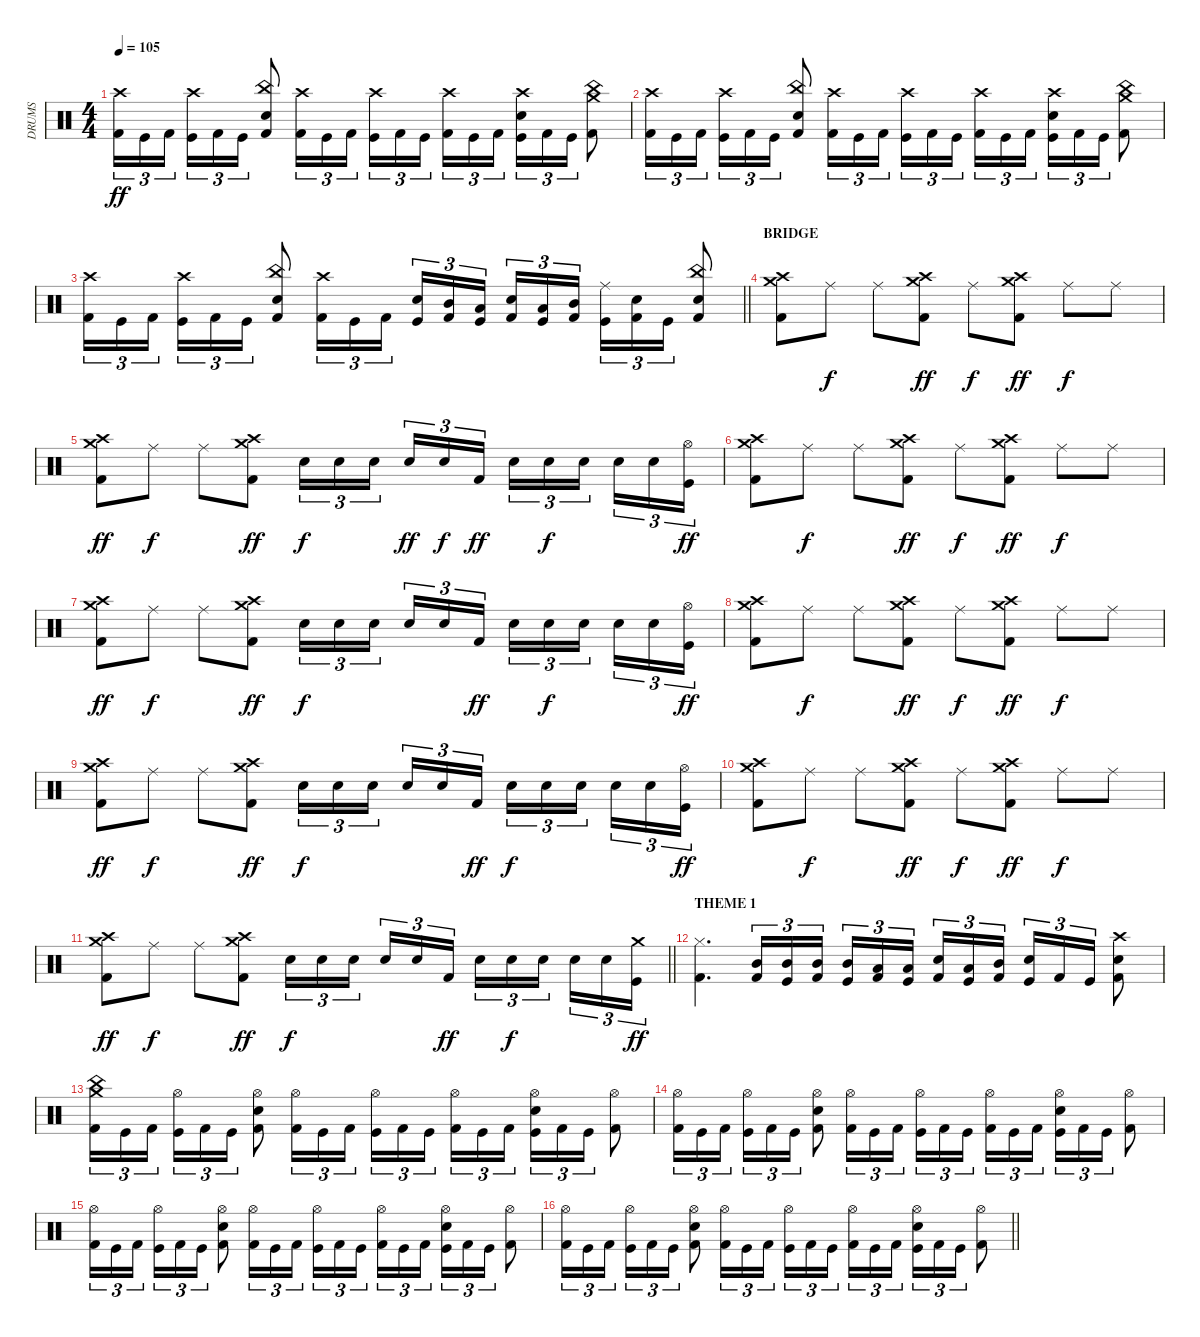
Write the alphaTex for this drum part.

\track ("DRUMS" "DRUMS") {instrument percussion}
\staff {score}
\articulation defaults
\ts (4 4)
\tempo 105
\clef neutral
\ks c
("Crash high (hit)" "Kick (hit) 2").16{tu (3 2) dy ff} "Kick (hit)".16{tu (3 2)} "Kick (hit) 2".16{tu (3 2) beam splitsecondary} ("Crash high (hit)" "Kick (hit)").16{tu (3 2)} "Kick (hit) 2".16{tu (3 2)} "Kick (hit)".16{tu (3 2)} ("China (hit)" "Snare (hit) 2" "Kick (hit) 2").8 ("Crash high (hit)" "Kick (hit) 2").16{tu (3 2)} "Kick (hit)".16{tu (3 2)} "Kick (hit) 2".16{tu (3 2)} ("Crash high (hit)" "Kick (hit)").16{tu (3 2)} "Kick (hit) 2".16{tu (3 2)} "Kick (hit)".16{tu (3 2) beam splitsecondary} ("Crash high (hit)" "Kick (hit) 2").16{tu (3 2)} "Kick (hit)".16{tu (3 2)} "Kick (hit) 2".16{tu (3 2)} ("Crash high (hit)" "Snare (hit) 2" "Kick (hit)").16{tu (3 2)} "Kick (hit) 2".16{tu (3 2)} "Kick (hit)".16{tu (3 2)} ("Crash medium (hit)" "China (hit)" "Kick (hit) 2").8 |
("Crash high (hit)" "Kick (hit) 2").16{tu (3 2)} "Kick (hit)".16{tu (3 2)} "Kick (hit) 2".16{tu (3 2) beam splitsecondary} ("Crash high (hit)" "Kick (hit)").16{tu (3 2)} "Kick (hit) 2".16{tu (3 2)} "Kick (hit)".16{tu (3 2)} ("China (hit)" "Snare (hit) 2" "Kick (hit) 2").8 ("Crash high (hit)" "Kick (hit) 2").16{tu (3 2)} "Kick (hit)".16{tu (3 2)} "Kick (hit) 2".16{tu (3 2)} ("Crash high (hit)" "Kick (hit)").16{tu (3 2)} "Kick (hit) 2".16{tu (3 2)} "Kick (hit)".16{tu (3 2) beam splitsecondary} ("Crash high (hit)" "Kick (hit) 2").16{tu (3 2)} "Kick (hit)".16{tu (3 2)} "Kick (hit) 2".16{tu (3 2)} ("Crash high (hit)" "Snare (hit) 2" "Kick (hit)").16{tu (3 2)} "Kick (hit) 2".16{tu (3 2)} "Kick (hit)".16{tu (3 2)} ("Crash medium (hit)" "China (hit)" "Kick (hit) 2").8 |
\barLineRight lightlight
("Crash high (hit)" "Kick (hit) 2").16{tu (3 2)} "Kick (hit)".16{tu (3 2)} "Kick (hit) 2".16{tu (3 2) beam splitsecondary} ("Crash high (hit)" "Kick (hit)").16{tu (3 2)} "Kick (hit) 2".16{tu (3 2)} "Kick (hit)".16{tu (3 2)} ("China (hit)" "Snare (hit) 2" "Kick (hit) 2").8 ("Crash high (hit)" "Kick (hit) 2").16{tu (3 2)} "Kick (hit)".16{tu (3 2)} "Kick (hit) 2".16{tu (3 2)} ("Electric Snare (hit)" "Kick (hit)").16{tu (3 2)} ("Mid Tom (hit)" "Kick (hit) 2").16{tu (3 2)} ("Low Tom (hit)" "Kick (hit)").16{tu (3 2) beam splitsecondary} ("Snare (hit) 2" "Kick (hit) 2").16{tu (3 2)} ("Low Tom (hit)" "Kick (hit)").16{tu (3 2)} ("Mid Tom (hit)" "Kick (hit) 2").16{tu (3 2)} ("Ride (middle)" "Kick (hit)").16{tu (3 2)} ("Snare (hit) 2" "Kick (hit) 2").16{tu (3 2)} "Kick (hit)".16{tu (3 2)} ("China (hit)" "Snare (hit) 2" "Kick (hit) 2").8 |
\section ("" "BRIDGE")
("Crash high (hit)" "Crash medium (hit)" "Kick (hit) 2").8 "Ride (middle)".8{dy f} "Ride (middle)".8 ("Crash high (hit)" "Crash medium (hit)" "Kick (hit) 2").8{dy ff} "Ride (middle)".8{dy f} ("Crash high (hit)" "Crash medium (hit)" "Kick (hit) 2").8{dy ff} "Ride (middle)".8{dy f} "Ride (middle)".8 |
("Crash high (hit)" "Crash medium (hit)" "Kick (hit) 2").8{dy ff} "Ride (middle)".8{dy f} "Ride (middle)".8 ("Crash high (hit)" "Crash medium (hit)" "Kick (hit) 2").8{dy ff} "Electric Snare (hit)".16{tu (3 2) dy f} "Snare (hit) 2".16{tu (3 2)} "Electric Snare (hit)".16{tu (3 2) beam splitsecondary} "Snare (hit) 2".16{tu (3 2) dy ff} "Electric Snare (hit)".16{tu (3 2) dy f} "Kick (hit) 2".16{tu (3 2) dy ff} "Electric Snare (hit)".16{tu (3 2)} "Snare (hit) 2".16{tu (3 2) dy f} "Electric Snare (hit)".16{tu (3 2) beam splitsecondary} "Snare (hit) 2".16{tu (3 2)} "Electric Snare (hit)".16{tu (3 2)} ("Hi-Hat (open)" "Kick (hit)").16{tu (3 2) dy ff} |
("Crash high (hit)" "Crash medium (hit)" "Kick (hit) 2").8 "Ride (middle)".8{dy f} "Ride (middle)".8 ("Crash high (hit)" "Crash medium (hit)" "Kick (hit) 2").8{dy ff} "Ride (middle)".8{dy f} ("Crash high (hit)" "Crash medium (hit)" "Kick (hit) 2").8{dy ff} "Ride (middle)".8{dy f} "Ride (middle)".8 |
("Crash high (hit)" "Crash medium (hit)" "Kick (hit) 2").8{dy ff} "Ride (middle)".8{dy f} "Ride (middle)".8 ("Crash high (hit)" "Crash medium (hit)" "Kick (hit) 2").8{dy ff} "Electric Snare (hit)".16{tu (3 2) dy f} "Snare (hit) 2".16{tu (3 2)} "Electric Snare (hit)".16{tu (3 2) beam splitsecondary} "Snare (hit) 2".16{tu (3 2)} "Electric Snare (hit)".16{tu (3 2)} "Kick (hit) 2".16{tu (3 2) dy ff} "Electric Snare (hit)".16{tu (3 2)} "Snare (hit) 2".16{tu (3 2) dy f} "Electric Snare (hit)".16{tu (3 2) beam splitsecondary} "Snare (hit) 2".16{tu (3 2)} "Electric Snare (hit)".16{tu (3 2)} ("Hi-Hat (open)" "Kick (hit)").16{tu (3 2) dy ff} |
("Crash high (hit)" "Crash medium (hit)" "Kick (hit) 2").8 "Ride (middle)".8{dy f} "Ride (middle)".8 ("Crash high (hit)" "Crash medium (hit)" "Kick (hit) 2").8{dy ff} "Ride (middle)".8{dy f} ("Crash high (hit)" "Crash medium (hit)" "Kick (hit) 2").8{dy ff} "Ride (middle)".8{dy f} "Ride (middle)".8 |
("Crash high (hit)" "Crash medium (hit)" "Kick (hit) 2").8{dy ff} "Ride (middle)".8{dy f} "Ride (middle)".8 ("Crash high (hit)" "Crash medium (hit)" "Kick (hit) 2").8{dy ff} "Electric Snare (hit)".16{tu (3 2) dy f} "Snare (hit) 2".16{tu (3 2)} "Electric Snare (hit)".16{tu (3 2) beam splitsecondary} "Snare (hit) 2".16{tu (3 2)} "Electric Snare (hit)".16{tu (3 2)} "Kick (hit) 2".16{tu (3 2) dy ff} "Electric Snare (hit)".16{tu (3 2) dy f} "Snare (hit) 2".16{tu (3 2)} "Electric Snare (hit)".16{tu (3 2) beam splitsecondary} "Snare (hit) 2".16{tu (3 2)} "Electric Snare (hit)".16{tu (3 2)} ("Hi-Hat (open)" "Kick (hit)").16{tu (3 2) dy ff} |
("Crash high (hit)" "Crash medium (hit)" "Kick (hit) 2").8 "Ride (middle)".8{dy f} "Ride (middle)".8 ("Crash high (hit)" "Crash medium (hit)" "Kick (hit) 2").8{dy ff} "Ride (middle)".8{dy f} ("Crash high (hit)" "Crash medium (hit)" "Kick (hit) 2").8{dy ff} "Ride (middle)".8{dy f} "Ride (middle)".8 |
\barLineRight lightlight
("Crash high (hit)" "Crash medium (hit)" "Kick (hit) 2").8{dy ff} "Ride (middle)".8{dy f} "Ride (middle)".8 ("Crash high (hit)" "Crash medium (hit)" "Kick (hit) 2").8{dy ff} "Electric Snare (hit)".16{tu (3 2) dy f} "Snare (hit) 2".16{tu (3 2)} "Electric Snare (hit)".16{tu (3 2) beam splitsecondary} "Snare (hit) 2".16{tu (3 2)} "Electric Snare (hit)".16{tu (3 2)} "Kick (hit) 2".16{tu (3 2) dy ff} "Electric Snare (hit)".16{tu (3 2)} "Snare (hit) 2".16{tu (3 2) dy f} "Electric Snare (hit)".16{tu (3 2) beam splitsecondary} "Snare (hit) 2".16{tu (3 2)} "Electric Snare (hit)".16{tu (3 2)} ("Crash medium (hit)" "Kick (hit)").16{tu (3 2) dy ff} |
\section ("" "THEME 1")
("Hi-Hat (closed)" "Kick (hit) 2").4{d} ("Mid Tom (hit)" "Kick (hit) 2").16{tu (3 2)} ("Mid Tom (hit)" "Kick (hit)").16{tu (3 2)} ("Mid Tom (hit)" "Kick (hit) 2").16{tu (3 2)} ("Mid Tom (hit)" "Kick (hit)").16{tu (3 2)} ("Low Tom (hit)" "Kick (hit) 2").16{tu (3 2)} ("Low Tom (hit)" "Kick (hit)").16{tu (3 2) beam splitsecondary} ("Electric Snare (hit)" "Kick (hit) 2").16{tu (3 2)} ("Low Tom (hit)" "Kick (hit)").16{tu (3 2)} ("Mid Tom (hit)" "Kick (hit) 2").16{tu (3 2)} ("Electric Snare (hit)" "Kick (hit)").16{tu (3 2)} "Kick (hit) 2".16{tu (3 2)} "Kick (hit)".16{tu (3 2)} ("Crash high (hit)" "Snare (hit) 2" "Kick (hit) 2").8 |
("China (hit)" "Crash medium (hit)" "Kick (hit) 2").16{tu (3 2)} "Kick (hit)".16{tu (3 2)} "Kick (hit) 2".16{tu (3 2) beam splitsecondary} ("Hi-Hat (open)" "Kick (hit)").16{tu (3 2)} "Kick (hit) 2".16{tu (3 2)} "Kick (hit)".16{tu (3 2)} ("Hi-Hat (open)" "Snare (hit) 2" "Kick (hit) 2").8 ("Hi-Hat (open)" "Kick (hit) 2").16{tu (3 2)} "Kick (hit)".16{tu (3 2)} "Kick (hit) 2".16{tu (3 2)} ("Hi-Hat (open)" "Kick (hit)").16{tu (3 2)} "Kick (hit) 2".16{tu (3 2)} "Kick (hit)".16{tu (3 2) beam splitsecondary} ("Hi-Hat (open)" "Kick (hit) 2").16{tu (3 2)} "Kick (hit)".16{tu (3 2)} "Kick (hit) 2".16{tu (3 2)} ("Hi-Hat (open)" "Snare (hit) 2" "Kick (hit)").16{tu (3 2)} "Kick (hit) 2".16{tu (3 2)} "Kick (hit)".16{tu (3 2)} ("Hi-Hat (open)" "Kick (hit) 2").8 |
("Hi-Hat (open)" "Kick (hit) 2").16{tu (3 2)} "Kick (hit)".16{tu (3 2)} "Kick (hit) 2".16{tu (3 2) beam splitsecondary} ("Hi-Hat (open)" "Kick (hit)").16{tu (3 2)} "Kick (hit) 2".16{tu (3 2)} "Kick (hit)".16{tu (3 2)} ("Hi-Hat (open)" "Snare (hit) 2" "Kick (hit) 2").8 ("Hi-Hat (open)" "Kick (hit) 2").16{tu (3 2)} "Kick (hit)".16{tu (3 2)} "Kick (hit) 2".16{tu (3 2)} ("Hi-Hat (open)" "Kick (hit)").16{tu (3 2)} "Kick (hit) 2".16{tu (3 2)} "Kick (hit)".16{tu (3 2) beam splitsecondary} ("Hi-Hat (open)" "Kick (hit) 2").16{tu (3 2)} "Kick (hit)".16{tu (3 2)} "Kick (hit) 2".16{tu (3 2)} ("Hi-Hat (open)" "Snare (hit) 2" "Kick (hit)").16{tu (3 2)} "Kick (hit) 2".16{tu (3 2)} "Kick (hit)".16{tu (3 2)} ("Hi-Hat (open)" "Kick (hit) 2").8 |
("Hi-Hat (open)" "Kick (hit) 2").16{tu (3 2)} "Kick (hit)".16{tu (3 2)} "Kick (hit) 2".16{tu (3 2) beam splitsecondary} ("Hi-Hat (open)" "Kick (hit)").16{tu (3 2)} "Kick (hit) 2".16{tu (3 2)} "Kick (hit)".16{tu (3 2)} ("Hi-Hat (open)" "Snare (hit) 2" "Kick (hit) 2").8 ("Hi-Hat (open)" "Kick (hit) 2").16{tu (3 2)} "Kick (hit)".16{tu (3 2)} "Kick (hit) 2".16{tu (3 2)} ("Hi-Hat (open)" "Kick (hit)").16{tu (3 2)} "Kick (hit) 2".16{tu (3 2)} "Kick (hit)".16{tu (3 2) beam splitsecondary} ("Hi-Hat (open)" "Kick (hit) 2").16{tu (3 2)} "Kick (hit)".16{tu (3 2)} "Kick (hit) 2".16{tu (3 2)} ("Hi-Hat (open)" "Snare (hit) 2" "Kick (hit)").16{tu (3 2)} "Kick (hit) 2".16{tu (3 2)} "Kick (hit)".16{tu (3 2)} ("Hi-Hat (open)" "Kick (hit) 2").8 |
\barLineRight lightlight
("Hi-Hat (open)" "Kick (hit) 2").16{tu (3 2)} "Kick (hit)".16{tu (3 2)} "Kick (hit) 2".16{tu (3 2) beam splitsecondary} ("Hi-Hat (open)" "Kick (hit)").16{tu (3 2)} "Kick (hit) 2".16{tu (3 2)} "Kick (hit)".16{tu (3 2)} ("Hi-Hat (open)" "Snare (hit) 2" "Kick (hit) 2").8 ("Hi-Hat (open)" "Kick (hit) 2").16{tu (3 2)} "Kick (hit)".16{tu (3 2)} "Kick (hit) 2".16{tu (3 2)} ("Hi-Hat (open)" "Kick (hit)").16{tu (3 2)} "Kick (hit) 2".16{tu (3 2)} "Kick (hit)".16{tu (3 2) beam splitsecondary} ("Hi-Hat (open)" "Kick (hit) 2").16{tu (3 2)} "Kick (hit)".16{tu (3 2)} "Kick (hit) 2".16{tu (3 2)} ("Hi-Hat (open)" "Snare (hit) 2" "Kick (hit)").16{tu (3 2)} "Kick (hit) 2".16{tu (3 2)} "Kick (hit)".16{tu (3 2)} ("Hi-Hat (open)" "Kick (hit) 2").8
